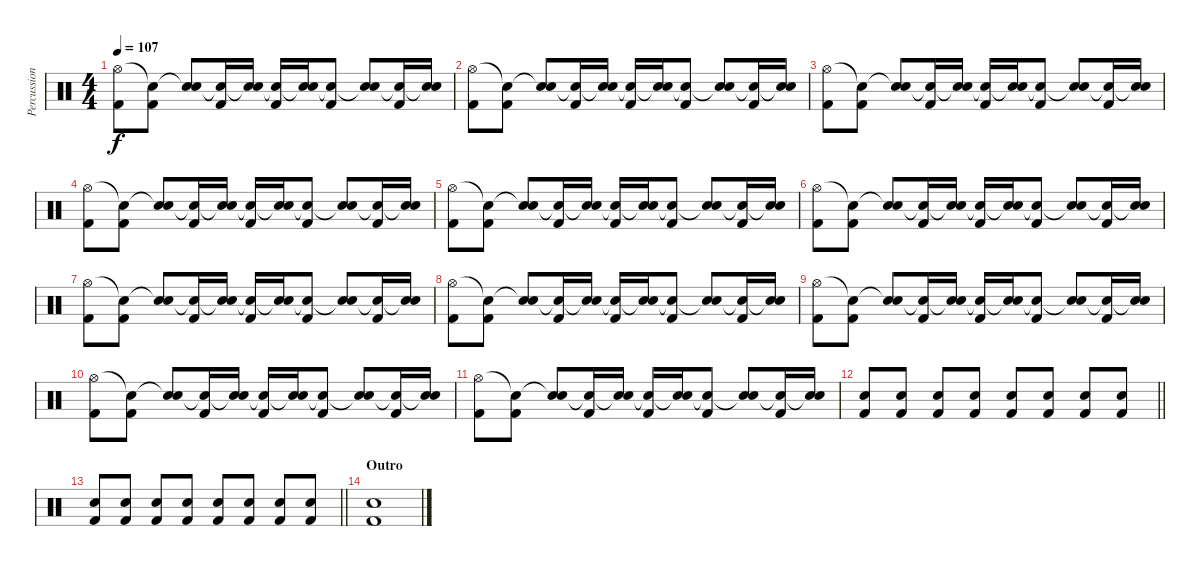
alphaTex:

\track ("Percussioni" "Percussion") {instrument percussion}
\staff {score}
\articulation defaults
\ts (4 4)
\tempo 107
\clef neutral
\ks c
("Hi-Hat (open)" "Kick (hit) 2").8{dy f} ("Snare (hit)"{t} "Kick (hit) 2").8 ("Snare (hit)"{t} "Electric Snare (hit)").8 ("Snare (hit)"{t} "Kick (hit) 2").16 ("Snare (hit)"{t} "Electric Snare (hit)").16 ("Snare (hit)"{t} "Kick (hit) 2").16 ("Snare (hit)"{t} "Electric Snare (hit)").16 ("Snare (hit)"{t} "Kick (hit) 2").8 ("Snare (hit)"{t} "Electric Snare (hit)").8 ("Snare (hit)"{t} "Kick (hit) 2").16 ("Snare (hit)"{t} "Electric Snare (hit)").16 |
("Hi-Hat (open)" "Kick (hit) 2").8 ("Snare (hit)"{t} "Kick (hit) 2").8 ("Snare (hit)"{t} "Electric Snare (hit)").8 ("Snare (hit)"{t} "Kick (hit) 2").16 ("Snare (hit)"{t} "Electric Snare (hit)").16 ("Snare (hit)"{t} "Kick (hit) 2").16 ("Snare (hit)"{t} "Electric Snare (hit)").16 ("Snare (hit)"{t} "Kick (hit) 2").8 ("Snare (hit)"{t} "Electric Snare (hit)").8 ("Snare (hit)"{t} "Kick (hit) 2").16 ("Snare (hit)"{t} "Electric Snare (hit)").16 |
("Hi-Hat (open)" "Kick (hit) 2").8 ("Snare (hit)"{t} "Kick (hit) 2").8 ("Snare (hit)"{t} "Electric Snare (hit)").8 ("Snare (hit)"{t} "Kick (hit) 2").16 ("Snare (hit)"{t} "Electric Snare (hit)").16 ("Snare (hit)"{t} "Kick (hit) 2").16 ("Snare (hit)"{t} "Electric Snare (hit)").16 ("Snare (hit)"{t} "Kick (hit) 2").8 ("Snare (hit)"{t} "Electric Snare (hit)").8 ("Snare (hit)"{t} "Kick (hit) 2").16 ("Snare (hit)"{t} "Electric Snare (hit)").16 |
("Hi-Hat (open)" "Kick (hit) 2").8 ("Snare (hit)"{t} "Kick (hit) 2").8 ("Snare (hit)"{t} "Electric Snare (hit)").8 ("Snare (hit)"{t} "Kick (hit) 2").16 ("Snare (hit)"{t} "Electric Snare (hit)").16 ("Snare (hit)"{t} "Kick (hit) 2").16 ("Snare (hit)"{t} "Electric Snare (hit)").16 ("Snare (hit)"{t} "Kick (hit) 2").8 ("Snare (hit)"{t} "Electric Snare (hit)").8 ("Snare (hit)"{t} "Kick (hit) 2").16 ("Snare (hit)"{t} "Electric Snare (hit)").16 |
("Hi-Hat (open)" "Kick (hit) 2").8 ("Snare (hit)"{t} "Kick (hit) 2").8 ("Snare (hit)"{t} "Electric Snare (hit)").8 ("Snare (hit)"{t} "Kick (hit) 2").16 ("Snare (hit)"{t} "Electric Snare (hit)").16 ("Snare (hit)"{t} "Kick (hit) 2").16 ("Snare (hit)"{t} "Electric Snare (hit)").16 ("Snare (hit)"{t} "Kick (hit) 2").8 ("Snare (hit)"{t} "Electric Snare (hit)").8 ("Snare (hit)"{t} "Kick (hit) 2").16 ("Snare (hit)"{t} "Electric Snare (hit)").16 |
("Hi-Hat (open)" "Kick (hit) 2").8 ("Snare (hit)"{t} "Kick (hit) 2").8 ("Snare (hit)"{t} "Electric Snare (hit)").8 ("Snare (hit)"{t} "Kick (hit) 2").16 ("Snare (hit)"{t} "Electric Snare (hit)").16 ("Snare (hit)"{t} "Kick (hit) 2").16 ("Snare (hit)"{t} "Electric Snare (hit)").16 ("Snare (hit)"{t} "Kick (hit) 2").8 ("Snare (hit)"{t} "Electric Snare (hit)").8 ("Snare (hit)"{t} "Kick (hit) 2").16 ("Snare (hit)"{t} "Electric Snare (hit)").16 |
("Hi-Hat (open)" "Kick (hit) 2").8 ("Snare (hit)"{t} "Kick (hit) 2").8 ("Snare (hit)"{t} "Electric Snare (hit)").8 ("Snare (hit)"{t} "Kick (hit) 2").16 ("Snare (hit)"{t} "Electric Snare (hit)").16 ("Snare (hit)"{t} "Kick (hit) 2").16 ("Snare (hit)"{t} "Electric Snare (hit)").16 ("Snare (hit)"{t} "Kick (hit) 2").8 ("Snare (hit)"{t} "Electric Snare (hit)").8 ("Snare (hit)"{t} "Kick (hit) 2").16 ("Snare (hit)"{t} "Electric Snare (hit)").16 |
("Hi-Hat (open)" "Kick (hit) 2").8 ("Snare (hit)"{t} "Kick (hit) 2").8 ("Snare (hit)"{t} "Electric Snare (hit)").8 ("Snare (hit)"{t} "Kick (hit) 2").16 ("Snare (hit)"{t} "Electric Snare (hit)").16 ("Snare (hit)"{t} "Kick (hit) 2").16 ("Snare (hit)"{t} "Electric Snare (hit)").16 ("Snare (hit)"{t} "Kick (hit) 2").8 ("Snare (hit)"{t} "Electric Snare (hit)").8 ("Snare (hit)"{t} "Kick (hit) 2").16 ("Snare (hit)"{t} "Electric Snare (hit)").16 |
("Hi-Hat (open)" "Kick (hit) 2").8 ("Snare (hit)"{t} "Kick (hit) 2").8 ("Snare (hit)"{t} "Electric Snare (hit)").8 ("Snare (hit)"{t} "Kick (hit) 2").16 ("Snare (hit)"{t} "Electric Snare (hit)").16 ("Snare (hit)"{t} "Kick (hit) 2").16 ("Snare (hit)"{t} "Electric Snare (hit)").16 ("Snare (hit)"{t} "Kick (hit) 2").8 ("Snare (hit)"{t} "Electric Snare (hit)").8 ("Snare (hit)"{t} "Kick (hit) 2").16 ("Snare (hit)"{t} "Electric Snare (hit)").16 |
("Hi-Hat (open)" "Kick (hit) 2").8 ("Snare (hit)"{t} "Kick (hit) 2").8 ("Snare (hit)"{t} "Electric Snare (hit)").8 ("Snare (hit)"{t} "Kick (hit) 2").16 ("Snare (hit)"{t} "Electric Snare (hit)").16 ("Snare (hit)"{t} "Kick (hit) 2").16 ("Snare (hit)"{t} "Electric Snare (hit)").16 ("Snare (hit)"{t} "Kick (hit) 2").8 ("Snare (hit)"{t} "Electric Snare (hit)").8 ("Snare (hit)"{t} "Kick (hit) 2").16 ("Snare (hit)"{t} "Electric Snare (hit)").16 |
("Hi-Hat (open)" "Kick (hit) 2").8 ("Snare (hit)"{t} "Kick (hit) 2").8 ("Snare (hit)"{t} "Electric Snare (hit)").8 ("Snare (hit)"{t} "Kick (hit) 2").16 ("Snare (hit)"{t} "Electric Snare (hit)").16 ("Snare (hit)"{t} "Kick (hit) 2").16 ("Snare (hit)"{t} "Electric Snare (hit)").16 ("Snare (hit)"{t} "Kick (hit) 2").8 ("Snare (hit)"{t} "Electric Snare (hit)").8 ("Snare (hit)"{t} "Kick (hit) 2").16 ("Snare (hit)"{t} "Electric Snare (hit)").16 |
\barLineRight lightlight
("Electric Snare (hit)" "Kick (hit) 2").8 ("Electric Snare (hit)" "Kick (hit) 2").8 ("Electric Snare (hit)" "Kick (hit) 2").8 ("Electric Snare (hit)" "Kick (hit) 2").8 ("Electric Snare (hit)" "Kick (hit) 2").8 ("Electric Snare (hit)" "Kick (hit) 2").8 ("Electric Snare (hit)" "Kick (hit) 2").8 ("Electric Snare (hit)" "Kick (hit) 2").8 |
\barLineRight lightlight
("Electric Snare (hit)" "Kick (hit) 2").8 ("Electric Snare (hit)" "Kick (hit) 2").8 ("Electric Snare (hit)" "Kick (hit) 2").8 ("Electric Snare (hit)" "Kick (hit) 2").8 ("Electric Snare (hit)" "Kick (hit) 2").8 ("Electric Snare (hit)" "Kick (hit) 2").8 ("Electric Snare (hit)" "Kick (hit) 2").8 ("Electric Snare (hit)" "Kick (hit) 2").8 |
\section ("" "Outro")
("Electric Snare (hit)" "Kick (hit) 2").1
